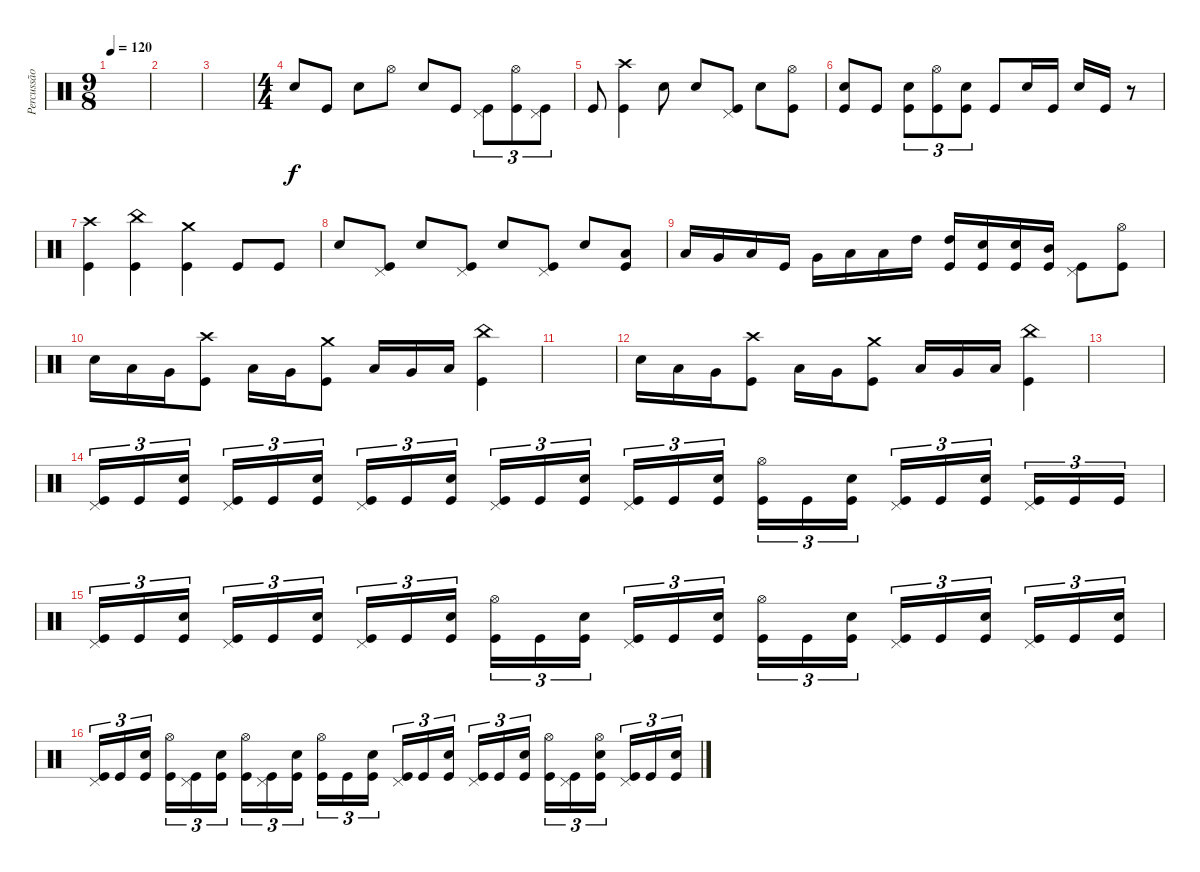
\track ("Percussão" "Percussão") {instrument percussion}
\staff {score}
\articulation defaults
\ts (9 8)
\tempo 120
\clef neutral
\ks c
|
|
|
\ts (4 4)
"Snare (hit) 2".8 "Kick (hit)".8 "Snare (hit) 2".8 "Hi-Hat (open)".8 "Snare (hit) 2".8 "Kick (hit)".8 ("Kick (hit)" "Pedal Hi-Hat (hit)").8{tu (3 2)} ("Kick (hit)" "Hi-Hat (open)").8{tu (3 2)} ("Kick (hit)" "Pedal Hi-Hat (hit)").8{tu (3 2)} |
"Kick (hit)".8 ("Kick (hit)" "Crash high (hit)").4 "Snare (hit) 2".8 "Snare (hit) 2".8 ("Kick (hit)" "Pedal Hi-Hat (hit)").8 "Snare (hit) 2".8 ("Kick (hit)" "Hi-Hat (open)").8 |
("Kick (hit)" "Snare (hit) 2").8 "Kick (hit)".8 ("Kick (hit)" "Snare (hit) 2").8{tu (3 2)} ("Kick (hit)" "Hi-Hat (open)").8{tu (3 2)} ("Kick (hit)" "Snare (hit) 2").8{tu (3 2)} "Kick (hit)".8 "Snare (hit) 2".16 "Kick (hit)".16 "Snare (hit) 2".16 "Kick (hit)".16 r.8 |
("Kick (hit)" "Crash high (hit)").4 ("Kick (hit)" "China (hit)").4 ("Kick (hit)" "Crash medium (hit)").4 "Kick (hit)".8 "Kick (hit)".8 |
"Snare (hit) 2".8 ("Kick (hit)" "Pedal Hi-Hat (hit)").8 "Snare (hit) 2".8 ("Kick (hit)" "Pedal Hi-Hat (hit)").8 "Snare (hit) 2".8 ("Kick (hit)" "Pedal Hi-Hat (hit)").8 "Snare (hit) 2".8 ("Kick (hit)" "Low Floor Tom (hit)").8 |
"Low Tom (hit)".16 "Very Low Tom (hit)".16 "Low Floor Tom (hit)".16 "Kick (hit)".16 "Very Low Tom (hit)".16 "Low Floor Tom (hit)".16 "Low Tom (hit)".16 "High Tom (hit)".16 ("Kick (hit)" "High Tom (hit)").16 ("Kick (hit)" "Snare (hit) 2").16 ("Kick (hit)" "Snare (hit) 2").16 ("Kick (hit)" "Mid Tom (hit)").16 ("Kick (hit)" "Pedal Hi-Hat (hit)").8 ("Kick (hit)" "Hi-Hat (open)").8 |
"Snare (hit) 2".16 "Low Tom (hit)".16 "Very Low Tom (hit)".16 ("Kick (hit)" "Crash high (hit)").8 "Low Tom (hit)".16 "Very Low Tom (hit)".16 ("Kick (hit)" "Crash medium (hit)").8 "Low Tom (hit)".16 "Very Low Tom (hit)".16 "Low Floor Tom (hit)".16 ("Kick (hit)" "China (hit)").4 |
|
"Snare (hit) 2".16 "Low Tom (hit)".16 "Very Low Tom (hit)".16 ("Kick (hit)" "Crash high (hit)").8 "Low Tom (hit)".16 "Very Low Tom (hit)".16 ("Kick (hit)" "Crash medium (hit)").8 "Low Tom (hit)".16 "Very Low Tom (hit)".16 "Low Floor Tom (hit)".16 ("Kick (hit)" "China (hit)").4 |
|
("Kick (hit)" "Pedal Hi-Hat (hit)").16{tu (3 2)} "Kick (hit)".16{tu (3 2)} ("Kick (hit)" "Snare (hit) 2").16{tu (3 2)} ("Kick (hit)" "Pedal Hi-Hat (hit)").16{tu (3 2)} "Kick (hit)".16{tu (3 2)} ("Kick (hit)" "Snare (hit) 2").16{tu (3 2)} ("Kick (hit)" "Pedal Hi-Hat (hit)").16{tu (3 2)} "Kick (hit)".16{tu (3 2)} ("Kick (hit)" "Snare (hit) 2").16{tu (3 2)} ("Kick (hit)" "Pedal Hi-Hat (hit)").16{tu (3 2)} "Kick (hit)".16{tu (3 2)} ("Kick (hit)" "Snare (hit) 2").16{tu (3 2)} ("Kick (hit)" "Pedal Hi-Hat (hit)").16{tu (3 2)} "Kick (hit)".16{tu (3 2)} ("Kick (hit)" "Snare (hit) 2").16{tu (3 2)} ("Kick (hit)" "Hi-Hat (open)").16{tu (3 2)} "Kick (hit)".16{tu (3 2)} ("Kick (hit)" "Snare (hit) 2").16{tu (3 2)} ("Kick (hit)" "Pedal Hi-Hat (hit)").16{tu (3 2)} "Kick (hit)".16{tu (3 2)} ("Kick (hit)" "Snare (hit) 2").16{tu (3 2)} ("Kick (hit)" "Pedal Hi-Hat (hit)").16{tu (3 2)} "Kick (hit)".16{tu (3 2)} "Kick (hit)".16{tu (3 2)} |
("Kick (hit)" "Pedal Hi-Hat (hit)").16{tu (3 2)} "Kick (hit)".16{tu (3 2)} ("Kick (hit)" "Snare (hit) 2").16{tu (3 2)} ("Kick (hit)" "Pedal Hi-Hat (hit)").16{tu (3 2)} "Kick (hit)".16{tu (3 2)} ("Kick (hit)" "Snare (hit) 2").16{tu (3 2)} ("Kick (hit)" "Pedal Hi-Hat (hit)").16{tu (3 2)} "Kick (hit)".16{tu (3 2)} ("Kick (hit)" "Snare (hit) 2").16{tu (3 2)} ("Kick (hit)" "Hi-Hat (open)").16{tu (3 2)} "Kick (hit)".16{tu (3 2)} ("Kick (hit)" "Snare (hit) 2").16{tu (3 2)} ("Kick (hit)" "Pedal Hi-Hat (hit)").16{tu (3 2)} "Kick (hit)".16{tu (3 2)} ("Kick (hit)" "Snare (hit) 2").16{tu (3 2)} ("Kick (hit)" "Hi-Hat (open)").16{tu (3 2)} "Kick (hit)".16{tu (3 2)} ("Kick (hit)" "Snare (hit) 2").16{tu (3 2)} ("Kick (hit)" "Pedal Hi-Hat (hit)").16{tu (3 2)} "Kick (hit)".16{tu (3 2)} ("Kick (hit)" "Snare (hit) 2").16{tu (3 2)} ("Kick (hit)" "Pedal Hi-Hat (hit)").16{tu (3 2)} "Kick (hit)".16{tu (3 2)} ("Kick (hit)" "Snare (hit) 2").16{tu (3 2)} |
("Kick (hit)" "Pedal Hi-Hat (hit)").16{tu (3 2)} "Kick (hit)".16{tu (3 2)} ("Kick (hit)" "Snare (hit) 2").16{tu (3 2)} ("Kick (hit)" "Hi-Hat (open)").16{tu (3 2)} ("Kick (hit)" "Pedal Hi-Hat (hit)").16{tu (3 2)} ("Kick (hit)" "Snare (hit) 2").16{tu (3 2)} ("Kick (hit)" "Hi-Hat (open)").16{tu (3 2)} ("Kick (hit)" "Pedal Hi-Hat (hit)").16{tu (3 2)} ("Kick (hit)" "Snare (hit) 2").16{tu (3 2)} ("Kick (hit)" "Hi-Hat (open)").16{tu (3 2)} "Kick (hit)".16{tu (3 2)} ("Kick (hit)" "Snare (hit) 2").16{tu (3 2)} ("Kick (hit)" "Pedal Hi-Hat (hit)").16{tu (3 2)} "Kick (hit)".16{tu (3 2)} ("Kick (hit)" "Snare (hit) 2").16{tu (3 2)} ("Kick (hit)" "Pedal Hi-Hat (hit)").16{tu (3 2)} "Kick (hit)".16{tu (3 2)} ("Kick (hit)" "Snare (hit) 2").16{tu (3 2)} ("Kick (hit)" "Hi-Hat (open)").16{tu (3 2)} ("Kick (hit)" "Pedal Hi-Hat (hit)").16{tu (3 2)} ("Kick (hit)" "Snare (hit) 2" "Hi-Hat (open)").16{tu (3 2)} ("Kick (hit)" "Pedal Hi-Hat (hit)").16{tu (3 2)} "Kick (hit)".16{tu (3 2)} ("Kick (hit)" "Snare (hit) 2").16{tu (3 2)}
